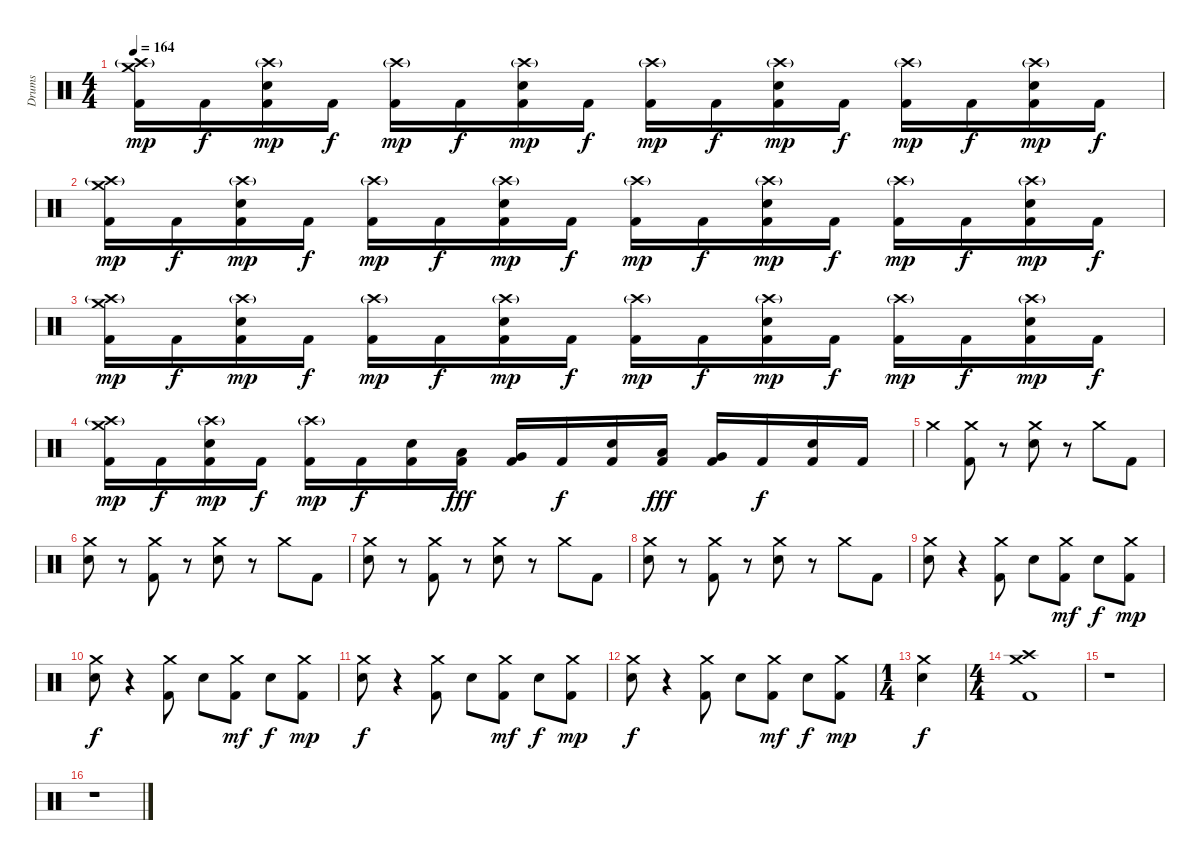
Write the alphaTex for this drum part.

\track ("Drums" "Drums") {instrument percussion}
\staff {score}
\articulation defaults
\ts (4 4)
\tempo 164
\clef neutral
\ks c
("Crash medium (hit)" "Crash high (hit)"{g} "Kick (hit) 2").16{dy mp} "Kick (hit) 2".16{dy f} ("Crash high (hit)"{g} "Snare (hit) 2" "Kick (hit) 2").16{dy mp} "Kick (hit) 2".16{dy f} ("Crash high (hit)"{g} "Kick (hit) 2").16{dy mp} "Kick (hit) 2".16{dy f} ("Crash high (hit)"{g} "Snare (hit) 2" "Kick (hit) 2").16{dy mp} "Kick (hit) 2".16{dy f} ("Crash high (hit)"{g} "Kick (hit) 2").16{dy mp} "Kick (hit) 2".16{dy f} ("Crash high (hit)"{g} "Snare (hit) 2" "Kick (hit) 2").16{dy mp} "Kick (hit) 2".16{dy f} ("Crash high (hit)"{g} "Kick (hit) 2").16{dy mp} "Kick (hit) 2".16{dy f} ("Crash high (hit)"{g} "Snare (hit) 2" "Kick (hit) 2").16{dy mp} "Kick (hit) 2".16{dy f} |
("Crash medium (hit)" "Crash high (hit)"{g} "Kick (hit) 2").16{dy mp} "Kick (hit) 2".16{dy f} ("Crash high (hit)"{g} "Snare (hit) 2" "Kick (hit) 2").16{dy mp} "Kick (hit) 2".16{dy f} ("Crash high (hit)"{g} "Kick (hit) 2").16{dy mp} "Kick (hit) 2".16{dy f} ("Crash high (hit)"{g} "Snare (hit) 2" "Kick (hit) 2").16{dy mp} "Kick (hit) 2".16{dy f} ("Crash high (hit)"{g} "Kick (hit) 2").16{dy mp} "Kick (hit) 2".16{dy f} ("Crash high (hit)"{g} "Snare (hit) 2" "Kick (hit) 2").16{dy mp} "Kick (hit) 2".16{dy f} ("Crash high (hit)"{g} "Kick (hit) 2").16{dy mp} "Kick (hit) 2".16{dy f} ("Crash high (hit)"{g} "Snare (hit) 2" "Kick (hit) 2").16{dy mp} "Kick (hit) 2".16{dy f} |
("Crash medium (hit)" "Crash high (hit)"{g} "Kick (hit) 2").16{dy mp} "Kick (hit) 2".16{dy f} ("Crash high (hit)"{g} "Snare (hit) 2" "Kick (hit) 2").16{dy mp} "Kick (hit) 2".16{dy f} ("Crash high (hit)"{g} "Kick (hit) 2").16{dy mp} "Kick (hit) 2".16{dy f} ("Crash high (hit)"{g} "Snare (hit) 2" "Kick (hit) 2").16{dy mp} "Kick (hit) 2".16{dy f} ("Crash high (hit)"{g} "Kick (hit) 2").16{dy mp} "Kick (hit) 2".16{dy f} ("Crash high (hit)"{g} "Snare (hit) 2" "Kick (hit) 2").16{dy mp} "Kick (hit) 2".16{dy f} ("Crash high (hit)"{g} "Kick (hit) 2").16{dy mp} "Kick (hit) 2".16{dy f} ("Crash high (hit)"{g} "Snare (hit) 2" "Kick (hit) 2").16{dy mp} "Kick (hit) 2".16{dy f} |
("Crash medium (hit)" "Crash high (hit)"{g} "Kick (hit) 2").16{dy mp} "Kick (hit) 2".16{dy f} ("Crash high (hit)"{g} "Snare (hit) 2" "Kick (hit) 2").16{dy mp} "Kick (hit) 2".16{dy f} ("Crash high (hit)"{g} "Kick (hit) 2").16{dy mp} "Kick (hit) 2".16{dy f} ("Snare (hit) 2" "Kick (hit) 2").16 ("Low Tom (hit)" "Kick (hit) 2").16{dy fff} ("Very Low Tom (hit)" "Kick (hit) 2").16 "Kick (hit) 2".16{dy f} ("Snare (hit) 2" "Kick (hit) 2").16 ("Low Tom (hit)" "Kick (hit) 2").16{dy fff} ("Very Low Tom (hit)" "Kick (hit) 2").16 "Kick (hit) 2".16{dy f} ("Snare (hit) 2" "Kick (hit) 2").16 "Kick (hit) 2".16 |
"Crash medium (hit)".4 ("Crash medium (hit)" "Kick (hit) 2").8 r.8 ("Crash medium (hit)" "Snare (hit) 2").8 r.8 "Crash medium (hit)".8 "Kick (hit) 2".8 |
("Crash medium (hit)" "Snare (hit) 2").8 r.8 ("Crash medium (hit)" "Kick (hit) 2").8 r.8 ("Crash medium (hit)" "Snare (hit) 2").8 r.8 "Crash medium (hit)".8 "Kick (hit) 2".8 |
("Crash medium (hit)" "Snare (hit) 2").8 r.8 ("Crash medium (hit)" "Kick (hit) 2").8 r.8 ("Crash medium (hit)" "Snare (hit) 2").8 r.8 "Crash medium (hit)".8 "Kick (hit) 2".8 |
("Crash medium (hit)" "Snare (hit) 2").8 r.8 ("Crash medium (hit)" "Kick (hit) 2").8 r.8 ("Crash medium (hit)" "Snare (hit) 2").8 r.8 "Crash medium (hit)".8 "Kick (hit) 2".8 |
("Crash medium (hit)" "Snare (hit) 2").8 r.4 ("Crash medium (hit)" "Kick (hit) 2").8 "Snare (hit) 2".8 ("Crash medium (hit)" "Kick (hit) 2").8{dy mf} "Snare (hit) 2".8{dy f} ("Crash medium (hit)" "Kick (hit) 2").8{dy mp} |
("Crash medium (hit)" "Snare (hit) 2").8{dy f} r.4 ("Crash medium (hit)" "Kick (hit) 2").8 "Snare (hit) 2".8 ("Crash medium (hit)" "Kick (hit) 2").8{dy mf} "Snare (hit) 2".8{dy f} ("Crash medium (hit)" "Kick (hit) 2").8{dy mp} |
("Crash medium (hit)" "Snare (hit) 2").8{dy f} r.4 ("Crash medium (hit)" "Kick (hit) 2").8 "Snare (hit) 2".8 ("Crash medium (hit)" "Kick (hit) 2").8{dy mf} "Snare (hit) 2".8{dy f} ("Crash medium (hit)" "Kick (hit) 2").8{dy mp} |
("Crash medium (hit)" "Snare (hit) 2").8{dy f} r.4 ("Crash medium (hit)" "Kick (hit) 2").8 "Snare (hit) 2".8 ("Crash medium (hit)" "Kick (hit) 2").8{dy mf} "Snare (hit) 2".8{dy f} ("Crash medium (hit)" "Kick (hit) 2").8{dy mp} |
\ts (1 4)
("Crash medium (hit)" "Snare (hit) 2").4{dy f} |
\ts (4 4)
("Crash high (hit)" "Crash medium (hit)" "Kick (hit) 2").1 |
r.1 |
r.1
